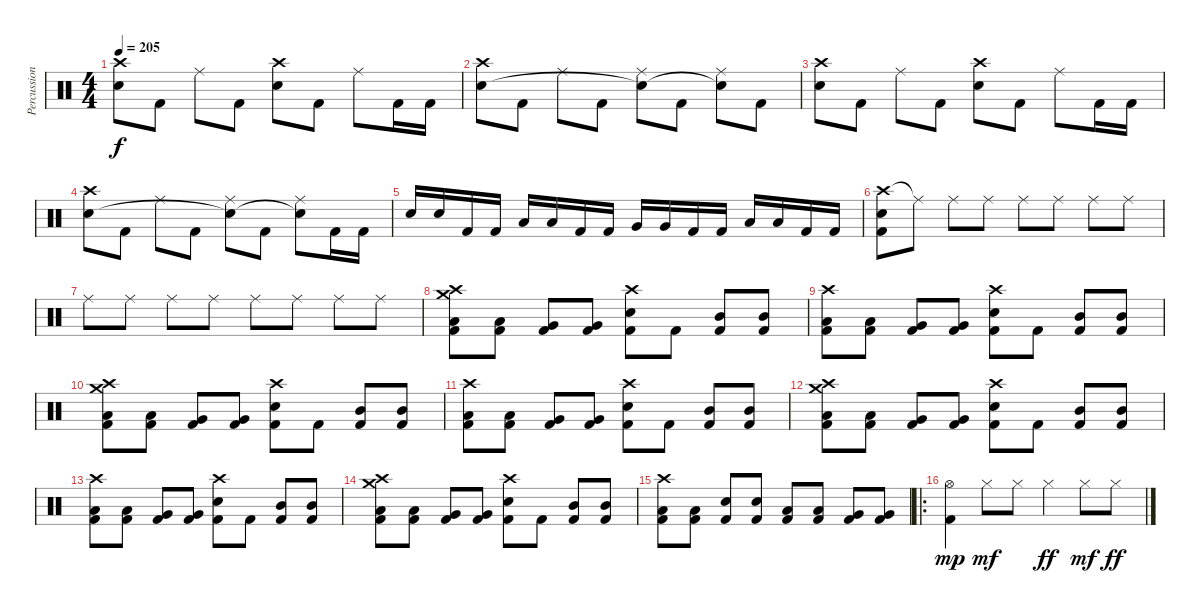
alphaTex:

\track ("Percussions" "Percussion") {instrument percussion}
\staff {score}
\articulation defaults
\ts (4 4)
\tempo 205
\clef neutral
\ks c
("Crash high (hit)" "Snare (hit) 2").8{dy f} "Kick (hit) 2".8 "Ride (middle)".8 "Kick (hit) 2".8 ("Crash high (hit)" "Snare (hit) 2").8 "Kick (hit) 2".8 "Ride (middle)".8 "Kick (hit) 2".16 "Kick (hit) 2".16 |
("Crash high (hit)" "Snare (hit) 2").8 "Kick (hit) 2".8 "Ride (middle)".8 "Kick (hit) 2".8 ("Ride (middle)" "Snare (hit)"{t}).8 "Kick (hit) 2".8 ("Ride (middle)" "Snare (hit)"{t}).8 "Kick (hit) 2".8 |
("Crash high (hit)" "Snare (hit) 2").8 "Kick (hit) 2".8 "Ride (middle)".8 "Kick (hit) 2".8 ("Crash high (hit)" "Snare (hit) 2").8 "Kick (hit) 2".8 "Ride (middle)".8 "Kick (hit) 2".16 "Kick (hit) 2".16 |
("Crash high (hit)" "Snare (hit) 2").8 "Kick (hit) 2".8 "Ride (middle)".8 "Kick (hit) 2".8 ("Ride (middle)" "Snare (hit)"{t}).8 "Kick (hit) 2".8 ("Ride (middle)" "Snare (hit)"{t}).8 "Kick (hit) 2".16 "Kick (hit) 2".16 |
"Snare (hit) 2".16 "Snare (hit) 2".16 "Kick (hit) 2".16 "Kick (hit) 2".16 "Low Tom (hit)".16 "Low Tom (hit)".16 "Kick (hit) 2".16 "Kick (hit) 2".16 "Very Low Tom (hit)".16 "Very Low Tom (hit)".16 "Kick (hit) 2".16 "Kick (hit) 2".16 "Low Floor Tom (hit)".16 "Low Floor Tom (hit)".16 "Kick (hit) 2".16 "Kick (hit) 2".16 |
("Crash high (hit)" "Snare (hit) 2" "Kick (hit) 2").8 "Ride (middle)"{t}.8 "Ride (middle)".8 "Ride (middle)".8 "Ride (middle)".8 "Ride (middle)".8 "Ride (middle)".8 "Ride (middle)".8 |
"Ride (middle)".8 "Ride (middle)".8 "Ride (middle)".8 "Ride (middle)".8 "Ride (middle)".8 "Ride (middle)".8 "Ride (middle)".8 "Ride (middle)".8 |
("Crash medium (hit)" "Crash high (hit)" "Low Tom (hit)" "Kick (hit) 2").8 ("Low Tom (hit)" "Kick (hit) 2").8 ("Very Low Tom (hit)" "Kick (hit) 2").8 ("Very Low Tom (hit)" "Kick (hit) 2").8 ("Crash high (hit)" "Snare (hit) 2" "Kick (hit) 2").8 "Kick (hit) 2".8 ("Mid Tom (hit)" "Kick (hit) 2").8 ("Mid Tom (hit)" "Kick (hit) 2").8 |
("Crash high (hit)" "Low Tom (hit)" "Kick (hit) 2").8 ("Low Tom (hit)" "Kick (hit) 2").8 ("Very Low Tom (hit)" "Kick (hit) 2").8 ("Very Low Tom (hit)" "Kick (hit) 2").8 ("Crash high (hit)" "Snare (hit) 2" "Kick (hit) 2").8 "Kick (hit) 2".8 ("Mid Tom (hit)" "Kick (hit) 2").8 ("Mid Tom (hit)" "Kick (hit) 2").8 |
("Crash medium (hit)" "Crash high (hit)" "Low Tom (hit)" "Kick (hit) 2").8 ("Low Tom (hit)" "Kick (hit) 2").8 ("Very Low Tom (hit)" "Kick (hit) 2").8 ("Very Low Tom (hit)" "Kick (hit) 2").8 ("Crash high (hit)" "Snare (hit) 2" "Kick (hit) 2").8 "Kick (hit) 2".8 ("Mid Tom (hit)" "Kick (hit) 2").8 ("Mid Tom (hit)" "Kick (hit) 2").8 |
("Crash high (hit)" "Low Tom (hit)" "Kick (hit) 2").8 ("Low Tom (hit)" "Kick (hit) 2").8 ("Very Low Tom (hit)" "Kick (hit) 2").8 ("Very Low Tom (hit)" "Kick (hit) 2").8 ("Crash high (hit)" "Snare (hit) 2" "Kick (hit) 2").8 "Kick (hit) 2".8 ("Mid Tom (hit)" "Kick (hit) 2").8 ("Mid Tom (hit)" "Kick (hit) 2").8 |
("Crash medium (hit)" "Crash high (hit)" "Low Tom (hit)" "Kick (hit) 2").8 ("Low Tom (hit)" "Kick (hit) 2").8 ("Very Low Tom (hit)" "Kick (hit) 2").8 ("Very Low Tom (hit)" "Kick (hit) 2").8 ("Crash high (hit)" "Snare (hit) 2" "Kick (hit) 2").8 "Kick (hit) 2".8 ("Mid Tom (hit)" "Kick (hit) 2").8 ("Mid Tom (hit)" "Kick (hit) 2").8 |
("Crash high (hit)" "Low Tom (hit)" "Kick (hit) 2").8 ("Low Tom (hit)" "Kick (hit) 2").8 ("Very Low Tom (hit)" "Kick (hit) 2").8 ("Very Low Tom (hit)" "Kick (hit) 2").8 ("Crash high (hit)" "Snare (hit) 2" "Kick (hit) 2").8 "Kick (hit) 2".8 ("Mid Tom (hit)" "Kick (hit) 2").8 ("Mid Tom (hit)" "Kick (hit) 2").8 |
("Crash medium (hit)" "Crash high (hit)" "Low Tom (hit)" "Kick (hit) 2").8 ("Low Tom (hit)" "Kick (hit) 2").8 ("Very Low Tom (hit)" "Kick (hit) 2").8 ("Very Low Tom (hit)" "Kick (hit) 2").8 ("Crash high (hit)" "Snare (hit) 2" "Kick (hit) 2").8 "Kick (hit) 2".8 ("Mid Tom (hit)" "Kick (hit) 2").8 ("Mid Tom (hit)" "Kick (hit) 2").8 |
("Crash high (hit)" "Low Tom (hit)" "Kick (hit) 2").8 ("Low Tom (hit)" "Kick (hit) 2").8 ("Snare (hit) 2" "Kick (hit) 2").8 ("Snare (hit) 2" "Kick (hit) 2").8 ("Low Tom (hit)" "Kick (hit) 2").8 ("Low Tom (hit)" "Kick (hit) 2").8 ("Very Low Tom (hit)" "Kick (hit) 2").8 ("Very Low Tom (hit)" "Kick (hit) 2").8 |
\ro
("Hi-Hat (open)" "Kick (hit) 2").4{dy mp} "Hi-Hat (closed)".8{dy mf} "Hi-Hat (closed)".8 "Hi-Hat (closed)".4{dy ff} "Hi-Hat (closed)".8{dy mf} "Hi-Hat (closed)".8{dy ff}
